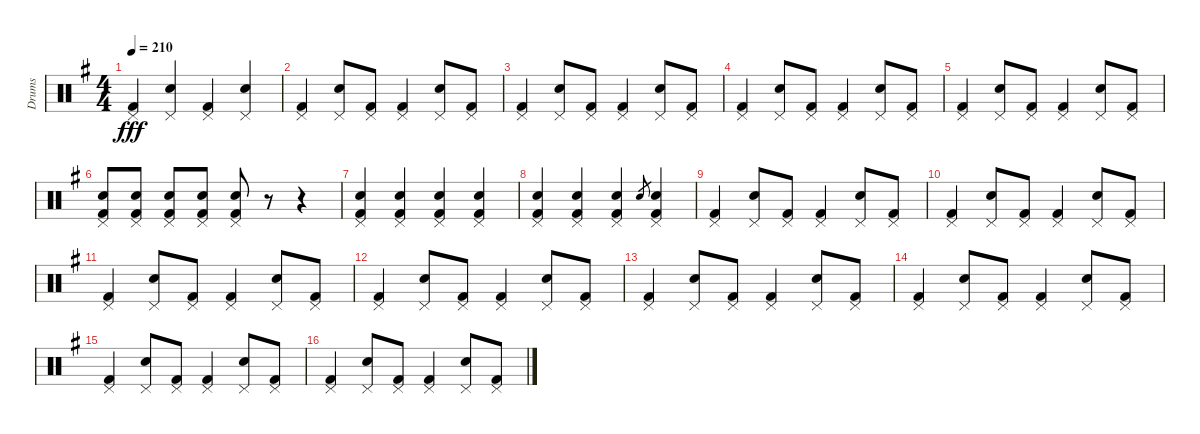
\track ("Drums" "Drums") {instrument percussion}
\staff {score}
\articulation defaults
\ts (4 4)
\tempo 210
\clef neutral
\ks g
("Kick (hit) 2" "Pedal Hi-Hat (hit)").4{dy fff} ("Electric Snare (hit)" "Pedal Hi-Hat (hit)").4 ("Kick (hit) 2" "Pedal Hi-Hat (hit)").4 ("Electric Snare (hit)" "Pedal Hi-Hat (hit)").4 |
("Kick (hit) 2" "Pedal Hi-Hat (hit)").4 ("Electric Snare (hit)" "Pedal Hi-Hat (hit)").8 ("Kick (hit) 2" "Pedal Hi-Hat (hit)").8 ("Kick (hit) 2" "Pedal Hi-Hat (hit)").4 ("Electric Snare (hit)" "Pedal Hi-Hat (hit)").8 ("Kick (hit) 2" "Pedal Hi-Hat (hit)").8 |
("Kick (hit) 2" "Pedal Hi-Hat (hit)").4 ("Electric Snare (hit)" "Pedal Hi-Hat (hit)").8 ("Kick (hit) 2" "Pedal Hi-Hat (hit)").8 ("Kick (hit) 2" "Pedal Hi-Hat (hit)").4 ("Electric Snare (hit)" "Pedal Hi-Hat (hit)").8 ("Kick (hit) 2" "Pedal Hi-Hat (hit)").8 |
("Kick (hit) 2" "Pedal Hi-Hat (hit)").4 ("Electric Snare (hit)" "Pedal Hi-Hat (hit)").8 ("Kick (hit) 2" "Pedal Hi-Hat (hit)").8 ("Kick (hit) 2" "Pedal Hi-Hat (hit)").4 ("Electric Snare (hit)" "Pedal Hi-Hat (hit)").8 ("Kick (hit) 2" "Pedal Hi-Hat (hit)").8 |
("Kick (hit) 2" "Pedal Hi-Hat (hit)").4 ("Electric Snare (hit)" "Pedal Hi-Hat (hit)").8 ("Kick (hit) 2" "Pedal Hi-Hat (hit)").8 ("Kick (hit) 2" "Pedal Hi-Hat (hit)").4 ("Electric Snare (hit)" "Pedal Hi-Hat (hit)").8 ("Kick (hit) 2" "Pedal Hi-Hat (hit)").8 |
("Electric Snare (hit)" "Kick (hit) 2" "Pedal Hi-Hat (hit)").8 ("Electric Snare (hit)" "Kick (hit) 2" "Pedal Hi-Hat (hit)").8 ("Electric Snare (hit)" "Kick (hit) 2" "Pedal Hi-Hat (hit)").8 ("Electric Snare (hit)" "Kick (hit) 2" "Pedal Hi-Hat (hit)").8 ("Electric Snare (hit)" "Kick (hit) 2" "Pedal Hi-Hat (hit)").8 r.8 r.4 |
("Electric Snare (hit)" "Kick (hit) 2" "Pedal Hi-Hat (hit)").4 ("Electric Snare (hit)" "Kick (hit) 2" "Pedal Hi-Hat (hit)").4 ("Electric Snare (hit)" "Kick (hit) 2" "Pedal Hi-Hat (hit)").4 ("Electric Snare (hit)" "Kick (hit) 2" "Pedal Hi-Hat (hit)").4 |
("Electric Snare (hit)" "Kick (hit) 2" "Pedal Hi-Hat (hit)").4 ("Electric Snare (hit)" "Kick (hit) 2" "Pedal Hi-Hat (hit)").4 ("Electric Snare (hit)" "Kick (hit) 2" "Pedal Hi-Hat (hit)").4 "Electric Snare (hit)".8{gr} ("Electric Snare (hit)" "Kick (hit) 2" "Pedal Hi-Hat (hit)").4 |
("Kick (hit) 2" "Pedal Hi-Hat (hit)").4 ("Electric Snare (hit)" "Pedal Hi-Hat (hit)").8 ("Kick (hit) 2" "Pedal Hi-Hat (hit)").8 ("Kick (hit) 2" "Pedal Hi-Hat (hit)").4 ("Electric Snare (hit)" "Pedal Hi-Hat (hit)").8 ("Kick (hit) 2" "Pedal Hi-Hat (hit)").8 |
("Kick (hit) 2" "Pedal Hi-Hat (hit)").4 ("Electric Snare (hit)" "Pedal Hi-Hat (hit)").8 ("Kick (hit) 2" "Pedal Hi-Hat (hit)").8 ("Kick (hit) 2" "Pedal Hi-Hat (hit)").4 ("Electric Snare (hit)" "Pedal Hi-Hat (hit)").8 ("Kick (hit) 2" "Pedal Hi-Hat (hit)").8 |
("Kick (hit) 2" "Pedal Hi-Hat (hit)").4 ("Electric Snare (hit)" "Pedal Hi-Hat (hit)").8 ("Kick (hit) 2" "Pedal Hi-Hat (hit)").8 ("Kick (hit) 2" "Pedal Hi-Hat (hit)").4 ("Electric Snare (hit)" "Pedal Hi-Hat (hit)").8 ("Kick (hit) 2" "Pedal Hi-Hat (hit)").8 |
("Kick (hit) 2" "Pedal Hi-Hat (hit)").4 ("Electric Snare (hit)" "Pedal Hi-Hat (hit)").8 ("Kick (hit) 2" "Pedal Hi-Hat (hit)").8 ("Kick (hit) 2" "Pedal Hi-Hat (hit)").4 ("Electric Snare (hit)" "Pedal Hi-Hat (hit)").8 ("Kick (hit) 2" "Pedal Hi-Hat (hit)").8 |
("Kick (hit) 2" "Pedal Hi-Hat (hit)").4 ("Electric Snare (hit)" "Pedal Hi-Hat (hit)").8 ("Kick (hit) 2" "Pedal Hi-Hat (hit)").8 ("Kick (hit) 2" "Pedal Hi-Hat (hit)").4 ("Electric Snare (hit)" "Pedal Hi-Hat (hit)").8 ("Kick (hit) 2" "Pedal Hi-Hat (hit)").8 |
("Kick (hit) 2" "Pedal Hi-Hat (hit)").4 ("Electric Snare (hit)" "Pedal Hi-Hat (hit)").8 ("Kick (hit) 2" "Pedal Hi-Hat (hit)").8 ("Kick (hit) 2" "Pedal Hi-Hat (hit)").4 ("Electric Snare (hit)" "Pedal Hi-Hat (hit)").8 ("Kick (hit) 2" "Pedal Hi-Hat (hit)").8 |
("Kick (hit) 2" "Pedal Hi-Hat (hit)").4 ("Electric Snare (hit)" "Pedal Hi-Hat (hit)").8 ("Kick (hit) 2" "Pedal Hi-Hat (hit)").8 ("Kick (hit) 2" "Pedal Hi-Hat (hit)").4 ("Electric Snare (hit)" "Pedal Hi-Hat (hit)").8 ("Kick (hit) 2" "Pedal Hi-Hat (hit)").8 |
("Kick (hit) 2" "Pedal Hi-Hat (hit)").4 ("Electric Snare (hit)" "Pedal Hi-Hat (hit)").8 ("Kick (hit) 2" "Pedal Hi-Hat (hit)").8 ("Kick (hit) 2" "Pedal Hi-Hat (hit)").4 ("Electric Snare (hit)" "Pedal Hi-Hat (hit)").8 ("Kick (hit) 2" "Pedal Hi-Hat (hit)").8
